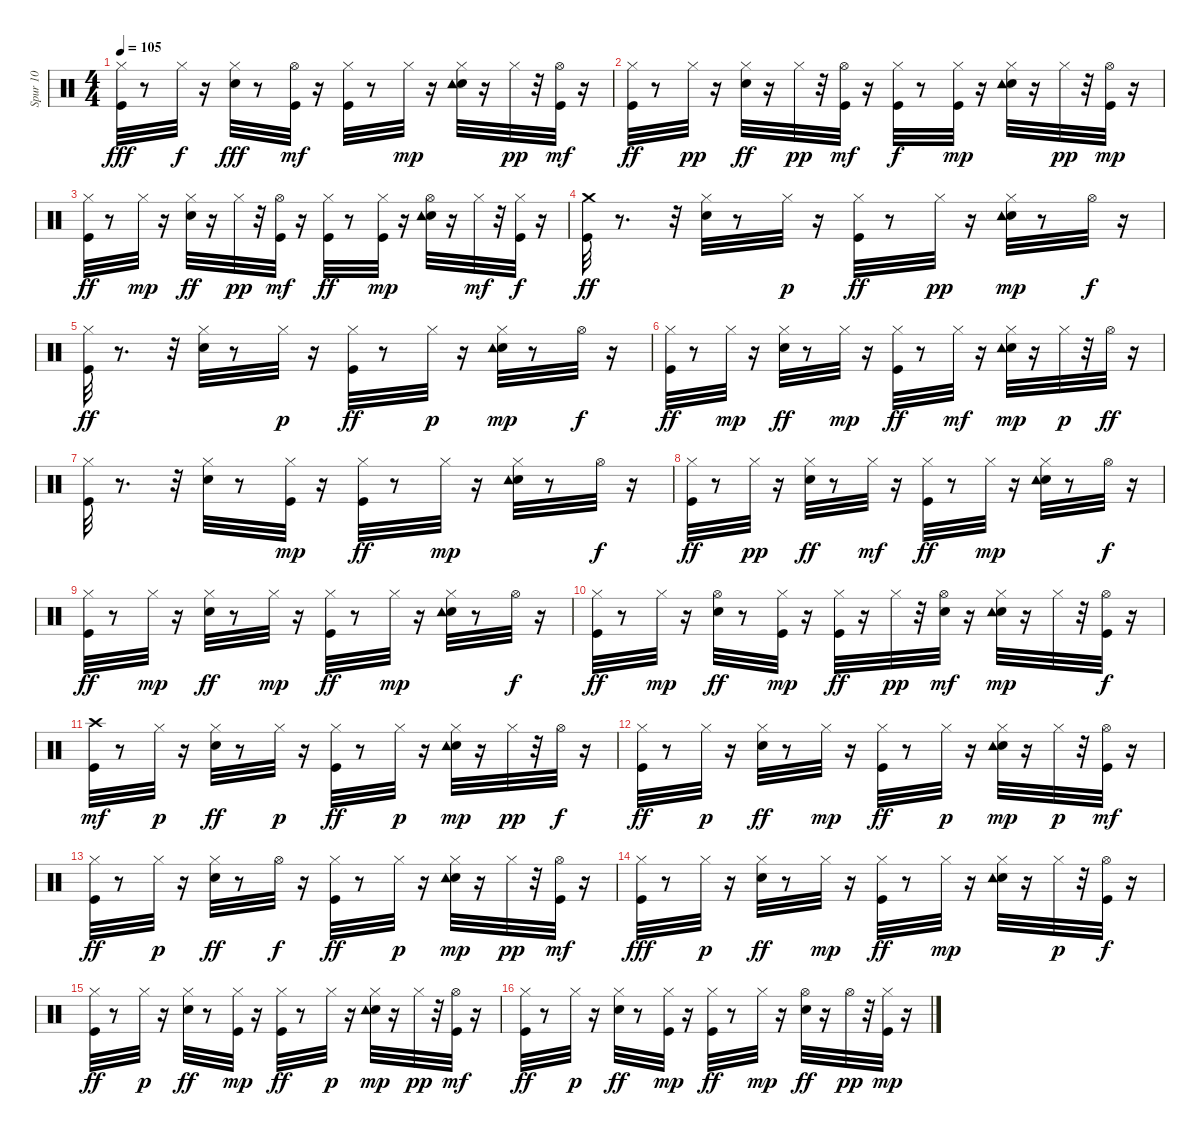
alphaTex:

\track ("Spur 10" "Spur 10") {instrument percussion}
\staff {score}
\articulation defaults
\ts (4 4)
\tempo 105
\clef neutral
\ks c
("Kick (hit)" "Hi-Hat (closed)").32{dy fff} r.8 "Hi-Hat (closed)".32{dy f} r.16 ("Snare (hit) 2" "Hi-Hat (closed)").32{dy fff} r.8 ("Kick (hit)" "Hi-Hat (open)").32{dy mf} r.16 ("Kick (hit)" "Hi-Hat (closed)").32 r.8 "Hi-Hat (closed)".32{dy mp} r.16 ("Snare (hit) 2" "Hi-Hat (closed)" "Tambourine (hit)").32 r.16 "Hi-Hat (closed)".32{dy pp} r.32 ("Kick (hit)" "Hi-Hat (open)").32{dy mf} r.16 |
("Kick (hit)" "Hi-Hat (closed)").32{dy ff} r.8 "Hi-Hat (closed)".32{dy pp} r.16 ("Snare (hit) 2" "Hi-Hat (closed)").32{dy ff} r.16 "Hi-Hat (closed)".32{dy pp} r.32 ("Kick (hit)" "Hi-Hat (open)").32{dy mf} r.16 ("Kick (hit)" "Hi-Hat (closed)").32{dy f} r.8 ("Kick (hit)" "Hi-Hat (closed)").32{dy mp} r.16 ("Snare (hit) 2" "Hi-Hat (closed)" "Tambourine (hit)").32 r.16 "Hi-Hat (closed)".32{dy pp} r.32 ("Kick (hit)" "Hi-Hat (open)").32{dy mp} r.16 |
("Kick (hit)" "Hi-Hat (closed)").32{dy ff} r.8 "Hi-Hat (closed)".32{dy mp} r.16 ("Snare (hit) 2" "Hi-Hat (closed)").32{dy ff} r.16 "Hi-Hat (closed)".32{dy pp} r.32 ("Kick (hit)" "Hi-Hat (open)").32{dy mf} r.16 ("Kick (hit)" "Hi-Hat (closed)").32{dy ff} r.8 ("Kick (hit)" "Hi-Hat (closed)").32{dy mp} r.16 ("Snare (hit) 2" "Hi-Hat (open)" "Tambourine (hit)").32 r.16 "Hi-Hat (closed)".32{dy mf} r.32 ("Kick (hit)" "Hi-Hat (closed)").32{dy f} r.16 |
("Kick (hit)" "Crash medium (hit)").32{dy ff} r.8{d} r.32 ("Snare (hit) 2" "Hi-Hat (closed)").32 r.8 "Hi-Hat (closed)".32{dy p} r.16 ("Kick (hit)" "Hi-Hat (closed)").32{dy ff} r.8 "Hi-Hat (closed)".32{dy pp} r.16 ("Snare (hit) 2" "Hi-Hat (closed)" "Tambourine (hit)").32{dy mp} r.8 "Hi-Hat (open)".32{dy f} r.16 |
("Kick (hit)" "Hi-Hat (closed)").32{dy ff} r.8{d} r.32 ("Snare (hit) 2" "Hi-Hat (closed)").32 r.8 "Hi-Hat (closed)".32{dy p} r.16 ("Kick (hit)" "Hi-Hat (closed)").32{dy ff} r.8 "Hi-Hat (closed)".32{dy p} r.16 ("Snare (hit) 2" "Hi-Hat (closed)" "Tambourine (hit)").32{dy mp} r.8 "Hi-Hat (open)".32{dy f} r.16 |
("Kick (hit)" "Hi-Hat (closed)").32{dy ff} r.8 "Hi-Hat (closed)".32{dy mp} r.16 ("Snare (hit) 2" "Hi-Hat (closed)").32{dy ff} r.8 "Hi-Hat (closed)".32{dy mp} r.16 ("Kick (hit)" "Hi-Hat (closed)").32{dy ff} r.8 "Hi-Hat (closed)".32{dy mf} r.16 ("Snare (hit) 2" "Hi-Hat (closed)" "Tambourine (hit)").32{dy mp} r.16 "Hi-Hat (closed)".32{dy p} r.32 "Hi-Hat (open)".32{dy ff} r.16 |
("Kick (hit)" "Hi-Hat (closed)").32 r.8{d} r.32 ("Snare (hit) 2" "Hi-Hat (closed)").32 r.8 ("Kick (hit)" "Hi-Hat (closed)").32{dy mp} r.16 ("Kick (hit)" "Hi-Hat (closed)").32{dy ff} r.8 "Hi-Hat (closed)".32{dy mp} r.16 ("Snare (hit) 2" "Hi-Hat (closed)" "Tambourine (hit)").32 r.8 "Hi-Hat (open)".32{dy f} r.16 |
("Kick (hit)" "Hi-Hat (closed)").32{dy ff} r.8 "Hi-Hat (closed)".32{dy pp} r.16 ("Snare (hit) 2" "Hi-Hat (closed)").32{dy ff} r.8 "Hi-Hat (closed)".32{dy mf} r.16 ("Kick (hit)" "Hi-Hat (closed)").32{dy ff} r.8 "Hi-Hat (closed)".32{dy mp} r.16 ("Snare (hit) 2" "Hi-Hat (closed)" "Tambourine (hit)").32 r.8 "Hi-Hat (open)".32{dy f} r.16 |
("Kick (hit)" "Hi-Hat (closed)").32{dy ff} r.8 "Hi-Hat (closed)".32{dy mp} r.16 ("Snare (hit) 2" "Hi-Hat (closed)").32{dy ff} r.8 "Hi-Hat (closed)".32{dy mp} r.16 ("Kick (hit)" "Hi-Hat (closed)").32{dy ff} r.8 "Hi-Hat (closed)".32{dy mp} r.16 ("Snare (hit) 2" "Hi-Hat (closed)" "Tambourine (hit)").32 r.8 "Hi-Hat (open)".32{dy f} r.16 |
("Kick (hit)" "Hi-Hat (closed)").32{dy ff} r.8 "Hi-Hat (closed)".32{dy mp} r.16 ("Snare (hit) 2" "Hi-Hat (open)").32{dy ff} r.8 ("Kick (hit)" "Hi-Hat (closed)").32{dy mp} r.16 ("Kick (hit)" "Hi-Hat (closed)").32{dy ff} r.16 "Hi-Hat (closed)".32{dy pp} r.32 ("Snare (hit) 2" "Hi-Hat (open)").32{dy mf} r.16 ("Snare (hit) 2" "Hi-Hat (closed)" "Tambourine (hit)").32{dy mp} r.16 "Hi-Hat (closed)".32 r.32 ("Kick (hit)" "Hi-Hat (open)").32{dy f} r.16 |
("Kick (hit)" "Crash high (hit)").32{dy mf} r.8 "Hi-Hat (closed)".32{dy p} r.16 ("Snare (hit) 2" "Hi-Hat (closed)").32{dy ff} r.8 "Hi-Hat (closed)".32{dy p} r.16 ("Kick (hit)" "Hi-Hat (closed)").32{dy ff} r.8 "Hi-Hat (closed)".32{dy p} r.16 ("Snare (hit) 2" "Hi-Hat (closed)" "Tambourine (hit)").32{dy mp} r.16 "Hi-Hat (closed)".32{dy pp} r.32 "Hi-Hat (open)".32{dy f} r.16 |
("Kick (hit)" "Hi-Hat (closed)").32{dy ff} r.8 "Hi-Hat (closed)".32{dy p} r.16 ("Snare (hit) 2" "Hi-Hat (closed)").32{dy ff} r.8 "Hi-Hat (closed)".32{dy mp} r.16 ("Kick (hit)" "Hi-Hat (closed)").32{dy ff} r.8 "Hi-Hat (closed)".32{dy p} r.16 ("Snare (hit) 2" "Hi-Hat (closed)" "Tambourine (hit)").32{dy mp} r.16 "Hi-Hat (closed)".32{dy p} r.32 ("Kick (hit)" "Hi-Hat (open)").32{dy mf} r.16 |
("Kick (hit)" "Hi-Hat (closed)").32{dy ff} r.8 "Hi-Hat (closed)".32{dy p} r.16 ("Snare (hit) 2" "Hi-Hat (closed)").32{dy ff} r.8 "Hi-Hat (open)".32{dy f} r.16 ("Kick (hit)" "Hi-Hat (closed)").32{dy ff} r.8 "Hi-Hat (closed)".32{dy p} r.16 ("Snare (hit) 2" "Hi-Hat (closed)" "Tambourine (hit)").32{dy mp} r.16 "Hi-Hat (closed)".32{dy pp} r.32 ("Kick (hit)" "Hi-Hat (open)").32{dy mf} r.16 |
("Kick (hit)" "Hi-Hat (closed)").32{dy fff} r.8 "Hi-Hat (closed)".32{dy p} r.16 ("Snare (hit) 2" "Hi-Hat (closed)").32{dy ff} r.8 "Hi-Hat (closed)".32{dy mp} r.16 ("Kick (hit)" "Hi-Hat (closed)").32{dy ff} r.8 "Hi-Hat (closed)".32{dy mp} r.16 ("Snare (hit) 2" "Hi-Hat (closed)" "Tambourine (hit)").32 r.16 "Hi-Hat (closed)".32{dy p} r.32 ("Kick (hit)" "Hi-Hat (open)").32{dy f} r.16 |
("Kick (hit)" "Hi-Hat (closed)").32{dy ff} r.8 "Hi-Hat (closed)".32{dy p} r.16 ("Snare (hit) 2" "Hi-Hat (closed)").32{dy ff} r.8 ("Kick (hit)" "Hi-Hat (closed)").32{dy mp} r.16 ("Kick (hit)" "Hi-Hat (closed)").32{dy ff} r.8 "Hi-Hat (closed)".32{dy p} r.16 ("Snare (hit) 2" "Hi-Hat (closed)" "Tambourine (hit)").32{dy mp} r.16 "Hi-Hat (closed)".32{dy pp} r.32 ("Kick (hit)" "Hi-Hat (open)").32{dy mf} r.16 |
("Kick (hit)" "Hi-Hat (closed)").32{dy ff} r.8 "Hi-Hat (closed)".32{dy p} r.16 ("Snare (hit) 2" "Hi-Hat (closed)").32{dy ff} r.8 ("Kick (hit)" "Hi-Hat (closed)").32{dy mp} r.16 ("Kick (hit)" "Hi-Hat (closed)").32{dy ff} r.8 "Hi-Hat (closed)".32{dy mp} r.16 ("Snare (hit) 2" "Hi-Hat (open)").32{dy ff} r.16 "Hi-Hat (open)".32{dy pp} r.32 ("Kick (hit)" "Hi-Hat (closed)").32{dy mp} r.16
